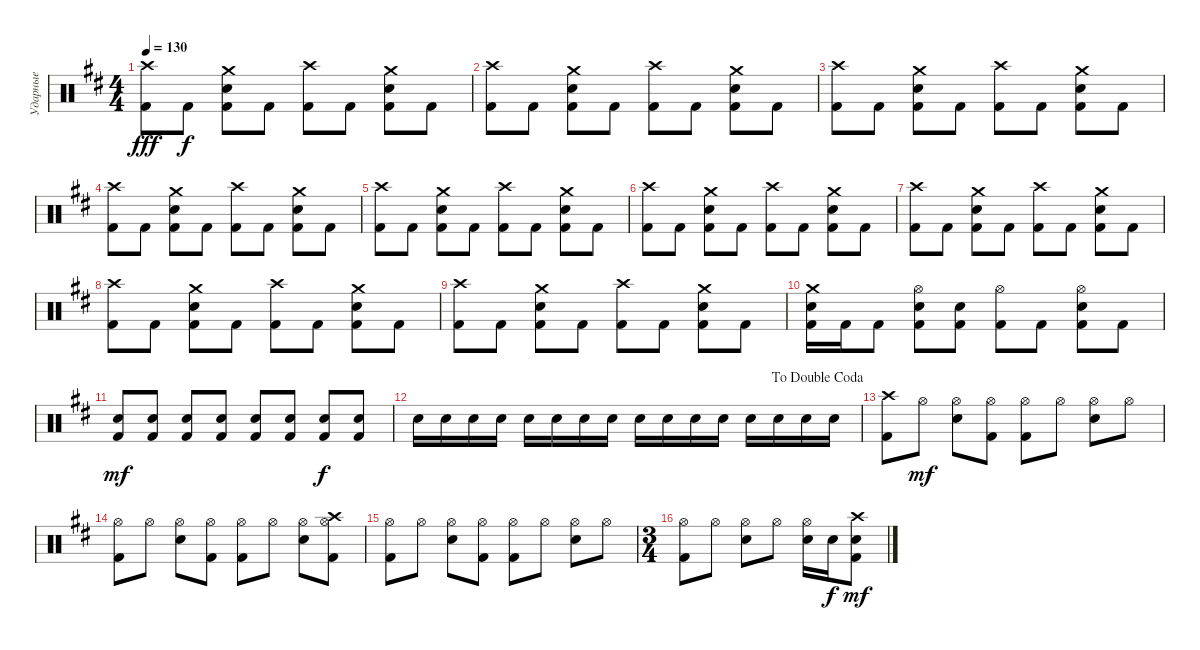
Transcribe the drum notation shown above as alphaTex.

\track ("Ударные" "Ударные") {instrument percussion}
\staff {score}
\articulation defaults
\ts (4 4)
\tempo 130
\clef neutral
\ks d
("Kick (hit) 2" "Crash high (hit)").8{dy fff} "Kick (hit) 2".8{dy f} ("Kick (hit) 2" "Electric Snare (hit)" "Crash medium (hit)").8 "Kick (hit) 2".8 ("Kick (hit) 2" "Crash high (hit)").8 "Kick (hit) 2".8 ("Kick (hit) 2" "Electric Snare (hit)" "Crash medium (hit)").8 "Kick (hit) 2".8 |
("Kick (hit) 2" "Crash high (hit)").8 "Kick (hit) 2".8 ("Kick (hit) 2" "Electric Snare (hit)" "Crash medium (hit)").8 "Kick (hit) 2".8 ("Kick (hit) 2" "Crash high (hit)").8 "Kick (hit) 2".8 ("Kick (hit) 2" "Electric Snare (hit)" "Crash medium (hit)").8 "Kick (hit) 2".8 |
("Kick (hit) 2" "Crash high (hit)").8 "Kick (hit) 2".8 ("Kick (hit) 2" "Electric Snare (hit)" "Crash medium (hit)").8 "Kick (hit) 2".8 ("Kick (hit) 2" "Crash high (hit)").8 "Kick (hit) 2".8 ("Kick (hit) 2" "Electric Snare (hit)" "Crash medium (hit)").8 "Kick (hit) 2".8 |
("Kick (hit) 2" "Crash high (hit)").8 "Kick (hit) 2".8 ("Kick (hit) 2" "Electric Snare (hit)" "Crash medium (hit)").8 "Kick (hit) 2".8 ("Kick (hit) 2" "Crash high (hit)").8 "Kick (hit) 2".8 ("Kick (hit) 2" "Electric Snare (hit)" "Crash medium (hit)").8 "Kick (hit) 2".8 |
("Kick (hit) 2" "Crash high (hit)").8 "Kick (hit) 2".8 ("Kick (hit) 2" "Electric Snare (hit)" "Crash medium (hit)").8 "Kick (hit) 2".8 ("Kick (hit) 2" "Crash high (hit)").8 "Kick (hit) 2".8 ("Kick (hit) 2" "Electric Snare (hit)" "Crash medium (hit)").8 "Kick (hit) 2".8 |
("Kick (hit) 2" "Crash high (hit)").8 "Kick (hit) 2".8 ("Kick (hit) 2" "Electric Snare (hit)" "Crash medium (hit)").8 "Kick (hit) 2".8 ("Kick (hit) 2" "Crash high (hit)").8 "Kick (hit) 2".8 ("Kick (hit) 2" "Electric Snare (hit)" "Crash medium (hit)").8 "Kick (hit) 2".8 |
("Kick (hit) 2" "Crash high (hit)").8 "Kick (hit) 2".8 ("Kick (hit) 2" "Electric Snare (hit)" "Crash medium (hit)").8 "Kick (hit) 2".8 ("Kick (hit) 2" "Crash high (hit)").8 "Kick (hit) 2".8 ("Kick (hit) 2" "Electric Snare (hit)" "Crash medium (hit)").8 "Kick (hit) 2".8 |
("Kick (hit) 2" "Crash high (hit)").8 "Kick (hit) 2".8 ("Kick (hit) 2" "Electric Snare (hit)" "Crash medium (hit)").8 "Kick (hit) 2".8 ("Kick (hit) 2" "Crash high (hit)").8 "Kick (hit) 2".8 ("Kick (hit) 2" "Electric Snare (hit)" "Crash medium (hit)").8 "Kick (hit) 2".8 |
("Kick (hit) 2" "Crash high (hit)").8 "Kick (hit) 2".8 ("Kick (hit) 2" "Electric Snare (hit)" "Crash medium (hit)").8 "Kick (hit) 2".8 ("Kick (hit) 2" "Crash high (hit)").8 "Kick (hit) 2".8 ("Kick (hit) 2" "Electric Snare (hit)" "Crash medium (hit)").8 "Kick (hit) 2".8 |
("Kick (hit) 2" "Electric Snare (hit)" "Crash medium (hit)").16 "Kick (hit) 2".16 "Kick (hit) 2".8 ("Kick (hit) 2" "Electric Snare (hit)" "Hi-Hat (open)").8 ("Kick (hit) 2" "Electric Snare (hit)").8 ("Kick (hit) 2" "Hi-Hat (open)").8 "Kick (hit) 2".8 ("Kick (hit) 2" "Electric Snare (hit)" "Hi-Hat (open)").8 "Kick (hit) 2".8 |
("Kick (hit) 2" "Electric Snare (hit)").8{dy mf} ("Kick (hit) 2" "Electric Snare (hit)").8 ("Kick (hit) 2" "Electric Snare (hit)").8 ("Kick (hit) 2" "Electric Snare (hit)").8 ("Kick (hit) 2" "Electric Snare (hit)").8 ("Kick (hit) 2" "Electric Snare (hit)").8 ("Kick (hit) 2" "Electric Snare (hit)").8{dy f} ("Kick (hit) 2" "Electric Snare (hit)").8 |
\jump dadoublecoda "Snare (hit) 2".16 "Snare (hit) 2".16 "Snare (hit) 2".16 "Snare (hit) 2".16 "Snare (hit) 2".16 "Snare (hit) 2".16 "Snare (hit) 2".16 "Snare (hit) 2".16 "Electric Snare (hit)".16 "Electric Snare (hit)".16 "Electric Snare (hit)".16 "Electric Snare (hit)".16 "Electric Snare (hit)".16 "Electric Snare (hit)".16 "Electric Snare (hit)".16 "Electric Snare (hit)".16
|
("Crash high (hit)" "Kick (hit) 2").8 "Hi-Hat (open)".8{dy mf} ("Electric Snare (hit)" "Hi-Hat (open)").8 ("Kick (hit) 2" "Hi-Hat (open)").8 ("Kick (hit) 2" "Hi-Hat (open)").8 "Hi-Hat (open)".8 ("Electric Snare (hit)" "Hi-Hat (open)").8 "Hi-Hat (open)".8 |
("Hi-Hat (open)" "Kick (hit) 2").8 "Hi-Hat (open)".8 ("Electric Snare (hit)" "Hi-Hat (open)").8 ("Kick (hit) 2" "Hi-Hat (open)").8 ("Kick (hit) 2" "Hi-Hat (open)").8 "Hi-Hat (open)".8 ("Electric Snare (hit)" "Hi-Hat (open)").8 ("Hi-Hat (open)" "Crash high (hit)" "Kick (hit) 2").8 |
("Hi-Hat (open)" "Kick (hit) 2").8 "Hi-Hat (open)".8 ("Electric Snare (hit)" "Hi-Hat (open)").8 ("Kick (hit) 2" "Hi-Hat (open)").8 ("Kick (hit) 2" "Hi-Hat (open)").8 "Hi-Hat (open)".8 ("Electric Snare (hit)" "Hi-Hat (open)").8 "Hi-Hat (open)".8 |
\ts (3 4)
("Hi-Hat (open)" "Kick (hit) 2").8 "Hi-Hat (open)".8 ("Electric Snare (hit)" "Hi-Hat (open)").8 "Hi-Hat (open)".8 ("Electric Snare (hit)" "Hi-Hat (open)").16 "Electric Snare (hit)".16{dy f} ("Electric Snare (hit)" "Crash high (hit)" "Kick (hit) 2").8{dy mf}
